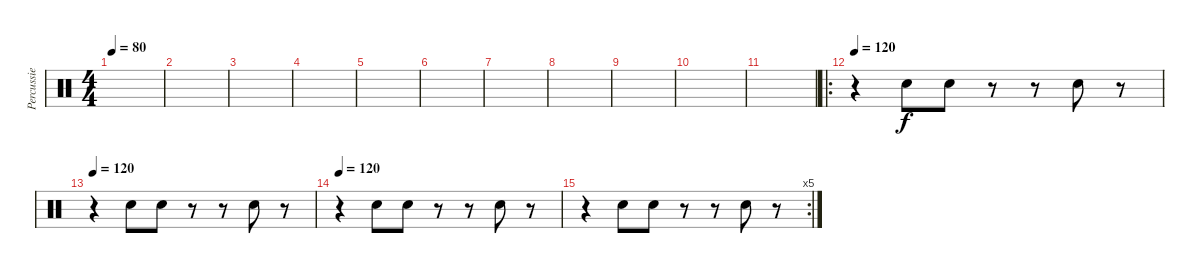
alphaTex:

\track ("Percussie" "Percussie") {instrument percussion}
\staff {score}
\articulation defaults
\ts (4 4)
\tempo 80
\clef neutral
\ks c
|
|
|
|
|
|
|
|
|
|
|
\ro
\tempo 120
r.4 "Hand Clap (hit)".8 "Hand Clap (hit)".8 r.8 r.8 "Hand Clap (hit)".8 r.8 |
\tempo 120
r.4 "Hand Clap (hit)".8 "Hand Clap (hit)".8 r.8 r.8 "Hand Clap (hit)".8 r.8 |
\tempo 120
r.4 "Hand Clap (hit)".8 "Hand Clap (hit)".8 r.8 r.8 "Hand Clap (hit)".8 r.8 |
\rc 5
r.4 "Hand Clap (hit)".8 "Hand Clap (hit)".8 r.8 r.8 "Hand Clap (hit)".8 r.8
